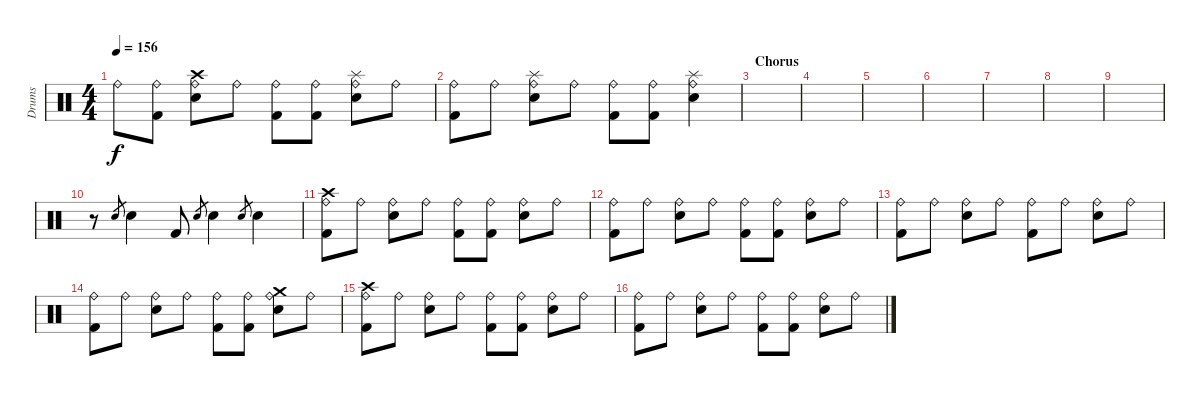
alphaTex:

\track ("Drums" "Drums") {instrument percussion}
\staff {score}
\articulation defaults
\ts (4 4)
\tempo 156
\clef neutral
\ks c "Ride (bell)".8{dy f}
("Ride (bell)" "Kick (hit) 2").8 ("Ride (bell)" "Electric Snare (hit)" "Crash high (hit)").8 "Ride (bell)".8 ("Ride (bell)" "Kick (hit) 2").8 ("Ride (bell)" "Kick (hit) 2").8 ("Ride (bell)" "Electric Snare (hit)" "Splash (hit)").8 "Ride (bell)".8 |
("Ride (bell)" "Kick (hit) 2").8 "Ride (bell)".8 ("Ride (bell)" "Electric Snare (hit)" "Splash (hit)").8 "Ride (bell)".8 ("Ride (bell)" "Kick (hit) 2").8 ("Ride (bell)" "Kick (hit) 2").8 ("Ride (bell)" "Electric Snare (hit)" "Splash (hit)").4 |
\section ("" "Chorus")
|
|
|
|
|
|
|
r.8 "Electric Snare (hit)".8{gr} "Electric Snare (hit)".4 "Kick (hit) 2".8 "Electric Snare (hit)".8{gr} "Electric Snare (hit)".4 "Electric Snare (hit)".8{gr} "Electric Snare (hit)".4 |
("Ride (bell)" "Kick (hit) 2" "Crash high (hit)").8 "Ride (bell)".8 ("Ride (bell)" "Electric Snare (hit)").8 "Ride (bell)".8 ("Ride (bell)" "Kick (hit) 2").8 ("Ride (bell)" "Kick (hit) 2").8 ("Ride (bell)" "Electric Snare (hit)").8 "Ride (bell)".8 |
("Ride (bell)" "Kick (hit) 2").8 "Ride (bell)".8 ("Ride (bell)" "Electric Snare (hit)").8 "Ride (bell)".8 ("Ride (bell)" "Kick (hit) 2").8 ("Ride (bell)" "Kick (hit) 2").8 ("Ride (bell)" "Electric Snare (hit)").8 "Ride (bell)".8 |
("Ride (bell)" "Kick (hit) 2").8 "Ride (bell)".8 ("Ride (bell)" "Electric Snare (hit)").8 "Ride (bell)".8 ("Ride (bell)" "Kick (hit) 2").8 "Ride (bell)".8 ("Ride (bell)" "Electric Snare (hit)").8 "Ride (bell)".8 |
("Ride (bell)" "Kick (hit) 2").8 "Ride (bell)".8 ("Ride (bell)" "Electric Snare (hit)").8 "Ride (bell)".8 ("Ride (bell)" "Kick (hit) 2").8 ("Ride (bell)" "Kick (hit) 2").8 ("Ride (bell)" "Electric Snare (hit)" "Crash medium (hit)").8 "Ride (bell)".8 |
("Ride (bell)" "Kick (hit) 2" "Crash high (hit)").8 "Ride (bell)".8 ("Ride (bell)" "Electric Snare (hit)").8 "Ride (bell)".8 ("Ride (bell)" "Kick (hit) 2").8 ("Ride (bell)" "Kick (hit) 2").8 ("Ride (bell)" "Electric Snare (hit)").8 "Ride (bell)".8 |
("Ride (bell)" "Kick (hit) 2").8 "Ride (bell)".8 ("Ride (bell)" "Electric Snare (hit)").8 "Ride (bell)".8 ("Ride (bell)" "Kick (hit) 2").8 ("Ride (bell)" "Kick (hit) 2").8 ("Ride (bell)" "Electric Snare (hit)").8 "Ride (bell)".8
